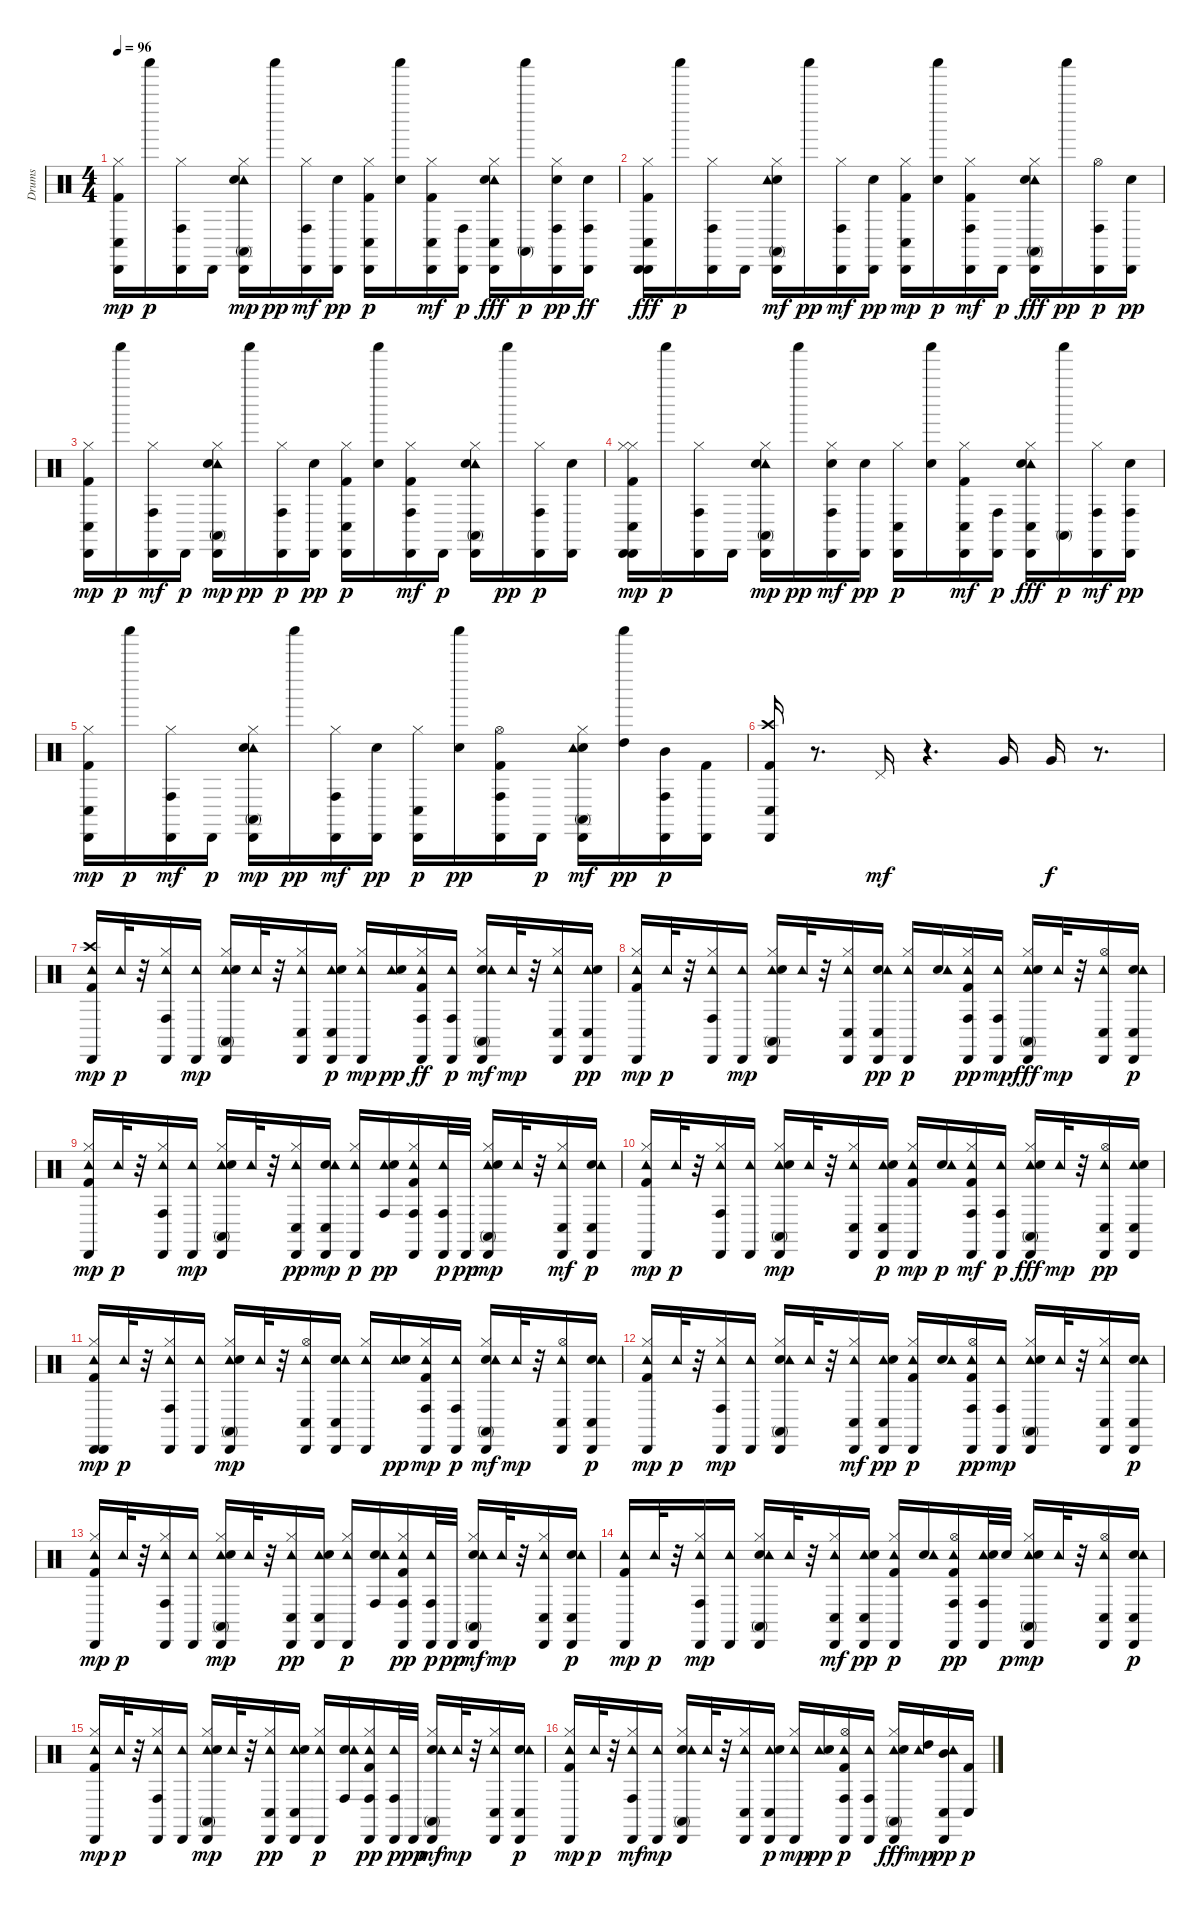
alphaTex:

\track ("Drums" "Drums") {instrument percussion}
\staff {score}
\articulation defaults
\ts (4 4)
\tempo 96
\clef neutral
\ks c
("Conga low (hit)" "Hi-Hat (closed)" "Kick (hit) 2" "Cabasa (hit)").16{dy mp} "Shaker (hit)".16{dy p} ("Cabasa (hit)" "Hi-Hat (closed)" "Conga high (hit)").16 "Cabasa (hit)".16 ("Conga high (mute)" "Tambourine (hit)" "Snare (hit) 2" "Hi-Hat (closed)" "Cabasa (hit)").16{dy mp} "Shaker (hit)".16{dy pp} ("Cabasa (hit)" "Conga high (hit)" "Hi-Hat (closed)").16{dy mf} ("Cabasa (hit)" "Electric Snare (hit)").16{dy pp} ("Cabasa (hit)" "Hi-Hat (closed)" "Kick (hit) 2" "Conga low (hit)").16{dy p} ("Electric Snare (hit)" "Shaker (hit)").16 ("Conga low (hit)" "Kick (hit) 2" "Cabasa (hit)" "Hi-Hat (closed)").16{dy mf} ("Conga high (hit)" "Cabasa (hit)").16{dy p} ("Tambourine (hit)" "Cabasa (hit)" "Conga low (hit)" "Hi-Hat (closed)" "Snare (hit) 2").16{dy fff} ("Shaker (hit)" "Conga high (mute)").16{dy p} ("Conga high (hit)" "Snare (hit) 2" "Hi-Hat (closed)" "Cabasa (hit)").16{dy pp} ("Conga high (hit)" "Cabasa (hit)" "Snare (hit) 2").16{dy ff} |
("Conga low (hit)" "Cabasa (hit)" "Hi-Hat (closed)" "Cabasa (hit)" "Kick (hit) 2").16{dy fff} "Shaker (hit)".16{dy p} ("Hi-Hat (closed)" "Conga high (hit)" "Cabasa (hit)").16 "Cabasa (hit)".16 ("Conga high (mute)" "Cabasa (hit)" "Snare (hit) 2" "Hi-Hat (closed)" "Tambourine (hit)").16{dy mf} "Shaker (hit)".16{dy pp} ("Cabasa (hit)" "Conga high (hit)" "Hi-Hat (closed)").16{dy mf} ("Cabasa (hit)" "Electric Snare (hit)").16{dy pp} ("Cabasa (hit)" "Hi-Hat (closed)" "Conga low (hit)" "Kick (hit) 2").16{dy mp} ("Electric Snare (hit)" "Shaker (hit)").16{dy p} ("Cabasa (hit)" "Conga high (hit)" "Kick (hit) 2" "Hi-Hat (closed)").16{dy mf} "Cabasa (hit)".16{dy p} ("Tambourine (hit)" "Conga high (mute)" "Cabasa (hit)" "Snare (hit) 2" "Hi-Hat (closed)").16{dy fff} "Shaker (hit)".16{dy pp} ("Cabasa (hit)" "Hi-Hat (open)" "Conga high (hit)").16{dy p} ("Cabasa (hit)" "Electric Snare (hit)").16{dy pp} |
("Hi-Hat (closed)" "Kick (hit) 2" "Conga low (hit)" "Cabasa (hit)").16{dy mp} "Shaker (hit)".16{dy p} ("Cabasa (hit)" "Conga high (hit)" "Hi-Hat (closed)").16{dy mf} "Cabasa (hit)".16{dy p} ("Tambourine (hit)" "Snare (hit) 2" "Hi-Hat (closed)" "Conga high (mute)" "Cabasa (hit)").16{dy mp} "Shaker (hit)".16{dy pp} ("Cabasa (hit)" "Hi-Hat (closed)" "Conga high (hit)").16{dy p} ("Electric Snare (hit)" "Cabasa (hit)").16{dy pp} ("Hi-Hat (closed)" "Kick (hit) 2" "Cabasa (hit)" "Conga low (hit)").16{dy p} ("Electric Snare (hit)" "Shaker (hit)").16 ("Conga high (hit)" "Kick (hit) 2" "Cabasa (hit)" "Hi-Hat (closed)").16{dy mf} "Cabasa (hit)".16{dy p} ("Cabasa (hit)" "Hi-Hat (closed)" "Tambourine (hit)" "Snare (hit) 2" "Conga high (mute)").16 "Shaker (hit)".16{dy pp} ("Cabasa (hit)" "Conga high (hit)" "Hi-Hat (closed)").16{dy p} ("Electric Snare (hit)" "Cabasa (hit)").16 |
("Cabasa (hit)" "Conga low (hit)" "Hi-Hat (closed)" "Kick (hit) 2" "Hi-Hat (closed)" "Cabasa (hit)").16{dy mp} "Shaker (hit)".16{dy p} ("Hi-Hat (closed)" "Cabasa (hit)" "Conga high (hit)").16 "Cabasa (hit)".16 ("Conga high (mute)" "Tambourine (hit)" "Hi-Hat (closed)" "Snare (hit) 2" "Cabasa (hit)").16{dy mp} "Shaker (hit)".16{dy pp} ("Cabasa (hit)" "Conga high (hit)" "Snare (hit) 2" "Hi-Hat (closed)").16{dy mf} ("Cabasa (hit)" "Electric Snare (hit)").16{dy pp} ("Cabasa (hit)" "Hi-Hat (closed)" "Conga low (hit)").16{dy p} ("Electric Snare (hit)" "Shaker (hit)").16 ("Conga low (hit)" "Cabasa (hit)" "Kick (hit) 2" "Hi-Hat (closed)").16{dy mf} ("Conga high (hit)" "Cabasa (hit)").16{dy p} ("Conga low (hit)" "Tambourine (hit)" "Cabasa (hit)" "Snare (hit) 2" "Hi-Hat (closed)").16{dy fff} ("Shaker (hit)" "Conga high (mute)").16{dy p} ("Conga high (hit)" "Cabasa (hit)" "Hi-Hat (closed)").16{dy mf} ("Cabasa (hit)" "Conga high (hit)" "Electric Snare (hit)").16{dy pp} |
("Conga low (hit)" "Kick (hit) 2" "Hi-Hat (closed)" "Cabasa (hit)").16{dy mp} "Shaker (hit)".16{dy p} ("Cabasa (hit)" "Conga high (hit)" "Hi-Hat (closed)").16{dy mf} "Cabasa (hit)".16{dy p} ("Tambourine (hit)" "Conga high (mute)" "Snare (hit) 2" "Hi-Hat (closed)" "Cabasa (hit)").16{dy mp} "Shaker (hit)".16{dy pp} ("Conga high (hit)" "Cabasa (hit)" "Hi-Hat (closed)").16{dy mf} ("Snare (hit) 2" "Cabasa (hit)").16{dy pp} ("Conga low (hit)" "Hi-Hat (closed)" "Cabasa (hit)").16{dy p} ("Shaker (hit)" "Electric Snare (hit)").16{dy pp} ("Conga high (hit)" "Kick (hit) 2" "Hi-Hat (open)" "Cabasa (hit)").16 "Cabasa (hit)".16{dy p} ("Cabasa (hit)" "Conga high (mute)" "Snare (hit) 2" "Hi-Hat (closed)" "Tambourine (hit)").16{dy mf} ("High Tom (hit)" "Shaker (hit)").16{dy pp} ("Cabasa (hit)" "Mid Tom (hit)" "Conga high (hit)").16{dy p} ("Kick (hit) 2" "Cabasa (hit)").16 |
("Cabasa (hit)" "Crash high (hit)" "Kick (hit) 2" "Conga low (hit)").16 r.8{d} "Pedal Hi-Hat (hit)".16{dy mf} r.4{d} "Very Low Tom (hit)".16 "Very Low Tom (hit)".16{dy f} r.8{d} |
("Kick (hit) 2" "Cabasa (hit)" "Tambourine (hit)" "Crash high (hit)").16{dy mp} "Tambourine (hit)".32{dy p} r.32 ("Conga high (hit)" "Tambourine (hit)" "Hi-Hat (closed)" "Cabasa (hit)").16 ("Cabasa (hit)" "Tambourine (hit)").16{dy mp} ("Hi-Hat (closed)" "Tambourine (hit)" "Snare (hit) 2" "Cabasa (hit)" "Conga high (mute)").16 "Tambourine (hit)".32 r.32 ("Cabasa (hit)" "Tambourine (hit)" "Hi-Hat (closed)" "Conga low (hit)").16 ("Cabasa (hit)" "Tambourine (hit)" "Electric Snare (hit)" "Conga low (hit)").16{dy p} ("Cabasa (hit)" "Tambourine (hit)" "Hi-Hat (closed)").16{dy mp} ("Tambourine (hit)" "Electric Snare (hit)").16{dy pp} ("Cabasa (hit)" "Tambourine (hit)" "Hi-Hat (closed)" "Conga high (hit)" "Kick (hit) 2").16{dy ff} ("Conga high (hit)" "Tambourine (hit)" "Cabasa (hit)").16{dy p} ("Hi-Hat (closed)" "Conga high (mute)" "Cabasa (hit)" "Snare (hit) 2" "Tambourine (hit)").16{dy mf} "Tambourine (hit)".32{dy mp} r.32 ("Conga low (hit)" "Cabasa (hit)" "Hi-Hat (closed)" "Tambourine (hit)").16 ("Cabasa (hit)" "Conga low (hit)" "Tambourine (hit)" "Electric Snare (hit)").16{dy pp} |
("Hi-Hat (closed)" "Kick (hit) 2" "Tambourine (hit)" "Cabasa (hit)").16{dy mp} "Tambourine (hit)".32{dy p} r.32 ("Cabasa (hit)" "Hi-Hat (closed)" "Tambourine (hit)" "Conga high (hit)").16 ("Cabasa (hit)" "Tambourine (hit)").16{dy mp} ("Tambourine (hit)" "Snare (hit) 2" "Hi-Hat (closed)" "Conga high (mute)" "Cabasa (hit)").16 "Tambourine (hit)".32 r.32 ("Cabasa (hit)" "Hi-Hat (closed)" "Tambourine (hit)" "Conga low (hit)").16 ("Electric Snare (hit)" "Tambourine (hit)" "Conga low (hit)" "Cabasa (hit)").16{dy pp} ("Hi-Hat (closed)" "Tambourine (hit)" "Cabasa (hit)").16{dy p} ("Electric Snare (hit)" "Tambourine (hit)").16 ("Tambourine (hit)" "Conga high (hit)" "Kick (hit) 2" "Hi-Hat (closed)" "Cabasa (hit)").16{dy pp} ("Cabasa (hit)" "Tambourine (hit)" "Conga high (hit)").16{dy mp} ("Cabasa (hit)" "Tambourine (hit)" "Conga high (mute)" "Snare (hit) 2" "Hi-Hat (closed)").16{dy fff} "Tambourine (hit)".32{dy mp} r.32 ("Cabasa (hit)" "Tambourine (hit)" "Hi-Hat (open)" "Conga low (hit)").16 ("Electric Snare (hit)" "Tambourine (hit)" "Conga low (hit)" "Cabasa (hit)").16{dy p} |
("Cabasa (hit)" "Kick (hit) 2" "Tambourine (hit)" "Hi-Hat (closed)").16{dy mp} "Tambourine (hit)".32{dy p} r.32 ("Tambourine (hit)" "Hi-Hat (closed)" "Conga high (hit)" "Cabasa (hit)").16 ("Cabasa (hit)" "Tambourine (hit)").16{dy mp} ("Conga high (mute)" "Hi-Hat (closed)" "Tambourine (hit)" "Snare (hit) 2" "Cabasa (hit)").16 "Tambourine (hit)".32 r.32 ("Tambourine (hit)" "Hi-Hat (closed)" "Conga low (hit)" "Cabasa (hit)").16{dy pp} ("Conga low (hit)" "Electric Snare (hit)" "Cabasa (hit)" "Tambourine (hit)").16{dy mp} ("Hi-Hat (closed)" "Tambourine (hit)" "Cabasa (hit)").16{dy p} ("Tambourine (hit)" "Conga high (hit)" "Electric Snare (hit)").16{dy pp} ("Conga high (hit)" "Hi-Hat (closed)" "Kick (hit) 2" "Tambourine (hit)" "Cabasa (hit)").16 ("Tambourine (hit)" "Conga high (hit)" "Cabasa (hit)").32{dy p} "Cabasa (hit)".32{dy pp} ("Cabasa (hit)" "Tambourine (hit)" "Snare (hit) 2" "Hi-Hat (closed)" "Conga high (mute)").16{dy mp} "Tambourine (hit)".32 r.32 ("Cabasa (hit)" "Tambourine (hit)" "Conga low (hit)" "Hi-Hat (closed)").16{dy mf} ("Electric Snare (hit)" "Tambourine (hit)" "Cabasa (hit)" "Conga low (hit)").16{dy p} |
("Hi-Hat (closed)" "Kick (hit) 2" "Tambourine (hit)" "Cabasa (hit)").16{dy mp} "Tambourine (hit)".32{dy p} r.32 ("Cabasa (hit)" "Tambourine (hit)" "Hi-Hat (closed)" "Conga high (hit)").16 ("Tambourine (hit)" "Cabasa (hit)").16 ("Tambourine (hit)" "Snare (hit) 2" "Hi-Hat (closed)" "Conga high (mute)" "Cabasa (hit)").16{dy mp} "Tambourine (hit)".32 r.32 ("Cabasa (hit)" "Hi-Hat (closed)" "Tambourine (hit)" "Conga low (hit)").16 ("Cabasa (hit)" "Tambourine (hit)" "Electric Snare (hit)" "Conga low (hit)").16{dy p} ("Cabasa (hit)" "Hi-Hat (closed)" "Kick (hit) 2" "Tambourine (hit)").16{dy mp} ("Electric Snare (hit)" "Tambourine (hit)").16{dy p} ("Conga high (hit)" "Tambourine (hit)" "Kick (hit) 2" "Cabasa (hit)" "Hi-Hat (closed)").16{dy mf} ("Tambourine (hit)" "Conga high (hit)" "Cabasa (hit)").16{dy p} ("Cabasa (hit)" "Tambourine (hit)" "Hi-Hat (closed)" "Conga high (mute)" "Snare (hit) 2").16{dy fff} "Tambourine (hit)".32{dy mp} r.32 ("Conga low (hit)" "Tambourine (hit)" "Hi-Hat (open)" "Cabasa (hit)").16{dy pp} ("Tambourine (hit)" "Cabasa (hit)" "Conga low (hit)" "Electric Snare (hit)").16 |
("Cabasa (hit)" "Hi-Hat (closed)" "Kick (hit) 2" "Cabasa (hit)" "Tambourine (hit)").16{dy mp} "Tambourine (hit)".32{dy p} r.32 ("Hi-Hat (closed)" "Conga high (hit)" "Tambourine (hit)" "Cabasa (hit)").16 ("Tambourine (hit)" "Cabasa (hit)").16 ("Tambourine (hit)" "Hi-Hat (closed)" "Snare (hit) 2" "Cabasa (hit)" "Conga high (mute)").16{dy mp} "Tambourine (hit)".32 r.32 ("Cabasa (hit)" "Tambourine (hit)" "Hi-Hat (open)" "Conga low (hit)").16 ("Cabasa (hit)" "Conga low (hit)" "Electric Snare (hit)" "Tambourine (hit)").16 ("Cabasa (hit)" "Hi-Hat (closed)" "Tambourine (hit)").16 ("Tambourine (hit)" "Electric Snare (hit)").16{dy pp} ("Cabasa (hit)" "Conga high (hit)" "Hi-Hat (closed)" "Kick (hit) 2" "Tambourine (hit)").16{dy mp} ("Tambourine (hit)" "Conga high (hit)" "Cabasa (hit)").16{dy p} ("Hi-Hat (closed)" "Cabasa (hit)" "Snare (hit) 2" "Conga high (mute)" "Tambourine (hit)").16{dy mf} "Tambourine (hit)".32{dy mp} r.32 ("Cabasa (hit)" "Hi-Hat (open)" "Tambourine (hit)" "Conga low (hit)").16 ("Cabasa (hit)" "Electric Snare (hit)" "Tambourine (hit)" "Conga low (hit)").16{dy p} |
("Hi-Hat (closed)" "Kick (hit) 2" "Tambourine (hit)" "Cabasa (hit)").16{dy mp} "Tambourine (hit)".32{dy p} r.32 ("Cabasa (hit)" "Conga high (hit)" "Hi-Hat (closed)" "Tambourine (hit)").16{dy mp} ("Cabasa (hit)" "Tambourine (hit)").16 ("Hi-Hat (closed)" "Snare (hit) 2" "Conga high (mute)" "Tambourine (hit)" "Cabasa (hit)").16 "Tambourine (hit)".32 r.32 ("Cabasa (hit)" "Tambourine (hit)" "Conga low (hit)" "Hi-Hat (closed)").16{dy mf} ("Tambourine (hit)" "Conga low (hit)" "Electric Snare (hit)" "Cabasa (hit)").16{dy pp} ("Kick (hit) 2" "Tambourine (hit)" "Hi-Hat (closed)" "Cabasa (hit)").16{dy p} ("Electric Snare (hit)" "Tambourine (hit)").16 ("Conga high (hit)" "Kick (hit) 2" "Hi-Hat (open)" "Tambourine (hit)" "Cabasa (hit)").16{dy pp} ("Cabasa (hit)" "Tambourine (hit)" "Conga high (hit)").16{dy mp} ("Cabasa (hit)" "Tambourine (hit)" "Hi-Hat (closed)" "Snare (hit) 2" "Conga high (mute)").16 "Tambourine (hit)".32 r.32 ("Cabasa (hit)" "Hi-Hat (closed)" "Tambourine (hit)" "Conga low (hit)").16 ("Electric Snare (hit)" "Tambourine (hit)" "Conga low (hit)" "Cabasa (hit)").16{dy p} |
("Cabasa (hit)" "Hi-Hat (closed)" "Kick (hit) 2" "Tambourine (hit)").16{dy mp} "Tambourine (hit)".32{dy p} r.32 ("Hi-Hat (closed)" "Conga high (hit)" "Tambourine (hit)" "Cabasa (hit)").16 ("Tambourine (hit)" "Cabasa (hit)").16 ("Tambourine (hit)" "Hi-Hat (closed)" "Snare (hit) 2" "Conga high (mute)" "Cabasa (hit)").16{dy mp} "Tambourine (hit)".32 r.32 ("Conga low (hit)" "Hi-Hat (closed)" "Tambourine (hit)" "Cabasa (hit)").16{dy pp} ("Tambourine (hit)" "Conga low (hit)" "Electric Snare (hit)" "Cabasa (hit)").16 ("Hi-Hat (closed)" "Tambourine (hit)" "Cabasa (hit)").16{dy p} ("Conga high (hit)" "Electric Snare (hit)" "Tambourine (hit)").16 ("Tambourine (hit)" "Kick (hit) 2" "Conga high (hit)" "Hi-Hat (closed)" "Cabasa (hit)").16{dy pp} ("Conga high (hit)" "Tambourine (hit)" "Cabasa (hit)").32{dy p} "Cabasa (hit)".32{dy pp} ("Cabasa (hit)" "Conga high (mute)" "Snare (hit) 2" "Hi-Hat (closed)" "Tambourine (hit)").16{dy mf} "Tambourine (hit)".32{dy mp} r.32 ("Cabasa (hit)" "Conga low (hit)" "Hi-Hat (closed)" "Tambourine (hit)").16 ("Electric Snare (hit)" "Conga low (hit)" "Tambourine (hit)" "Cabasa (hit)").16{dy p} |
("Kick (hit) 2" "Tambourine (hit)" "Cabasa (hit)").16{dy mp} "Tambourine (hit)".32{dy p} r.32 ("Cabasa (hit)" "Conga high (hit)" "Hi-Hat (closed)" "Tambourine (hit)").16{dy mp} ("Cabasa (hit)" "Tambourine (hit)").16 ("Hi-Hat (closed)" "Snare (hit) 2" "Conga high (mute)" "Tambourine (hit)" "Cabasa (hit)").16 "Tambourine (hit)".32 r.32 ("Cabasa (hit)" "Tambourine (hit)" "Conga low (hit)" "Hi-Hat (closed)").16{dy mf} ("Tambourine (hit)" "Conga low (hit)" "Snare (hit) 2" "Cabasa (hit)").16{dy pp} ("Kick (hit) 2" "Tambourine (hit)" "Hi-Hat (closed)" "Cabasa (hit)").16{dy p} ("Electric Snare (hit)" "Tambourine (hit)").16 ("Conga high (hit)" "Kick (hit) 2" "Hi-Hat (open)" "Tambourine (hit)" "Cabasa (hit)").16{dy pp} ("Cabasa (hit)" "Tambourine (hit)" "Conga high (hit)" "Electric Snare (hit)").32 "Electric Snare (hit)".32{dy p} ("Cabasa (hit)" "Tambourine (hit)" "Hi-Hat (closed)" "Snare (hit) 2" "Conga high (mute)").16{dy mp} "Tambourine (hit)".32 r.32 ("Cabasa (hit)" "Hi-Hat (open)" "Tambourine (hit)" "Conga low (hit)").16 ("Electric Snare (hit)" "Tambourine (hit)" "Conga low (hit)" "Cabasa (hit)").16{dy p} |
("Cabasa (hit)" "Hi-Hat (closed)" "Kick (hit) 2" "Tambourine (hit)").16{dy mp} "Tambourine (hit)".32{dy p} r.32 ("Hi-Hat (closed)" "Conga high (hit)" "Tambourine (hit)" "Cabasa (hit)").16 ("Tambourine (hit)" "Cabasa (hit)").16 ("Tambourine (hit)" "Hi-Hat (closed)" "Snare (hit) 2" "Conga high (mute)" "Cabasa (hit)").16{dy mp} "Tambourine (hit)".32 r.32 ("Conga low (hit)" "Hi-Hat (closed)" "Tambourine (hit)" "Cabasa (hit)").16{dy pp} ("Tambourine (hit)" "Conga low (hit)" "Electric Snare (hit)" "Cabasa (hit)").16 ("Hi-Hat (closed)" "Tambourine (hit)" "Cabasa (hit)").16{dy p} ("Conga high (hit)" "Electric Snare (hit)" "Tambourine (hit)").16 ("Tambourine (hit)" "Kick (hit) 2" "Conga high (hit)" "Hi-Hat (closed)" "Cabasa (hit)").16{dy pp} ("Conga high (hit)" "Tambourine (hit)" "Cabasa (hit)").32{dy p} "Cabasa (hit)".32{dy pp} ("Cabasa (hit)" "Conga high (mute)" "Snare (hit) 2" "Hi-Hat (closed)" "Tambourine (hit)").16{dy mf} "Tambourine (hit)".32{dy mp} r.32 ("Cabasa (hit)" "Conga low (hit)" "Hi-Hat (closed)" "Tambourine (hit)").16 ("Electric Snare (hit)" "Conga low (hit)" "Tambourine (hit)" "Cabasa (hit)").16{dy p} |
("Kick (hit) 2" "Hi-Hat (closed)" "Tambourine (hit)" "Cabasa (hit)").16{dy mp} "Tambourine (hit)".32{dy p} r.32 ("Cabasa (hit)" "Tambourine (hit)" "Conga high (hit)" "Hi-Hat (closed)").16{dy mf} ("Cabasa (hit)" "Tambourine (hit)").16{dy mp} ("Snare (hit) 2" "Conga high (mute)" "Hi-Hat (closed)" "Tambourine (hit)" "Cabasa (hit)").16 "Tambourine (hit)".32 r.32 ("Cabasa (hit)" "Hi-Hat (closed)" "Tambourine (hit)" "Conga low (hit)").16 ("Cabasa (hit)" "Tambourine (hit)" "Conga low (hit)" "Snare (hit) 2").16{dy p} ("Cabasa (hit)" "Tambourine (hit)" "Hi-Hat (closed)").16{dy mp} ("Tambourine (hit)" "Electric Snare (hit)").16{dy pp} ("Tambourine (hit)" "Kick (hit) 2" "Hi-Hat (open)" "Cabasa (hit)" "Conga high (hit)").16{dy p} ("Tambourine (hit)" "Conga high (hit)" "Cabasa (hit)").16 ("Cabasa (hit)" "Conga high (mute)" "Tambourine (hit)" "Snare (hit) 2" "Hi-Hat (closed)").16{dy fff} ("High Tom (hit)" "Tambourine (hit)").16{dy mp} ("Tambourine (hit)" "Conga low (hit)" "Mid Tom (hit)" "Cabasa (hit)").16{dy pp} ("Conga low (hit)" "Kick (hit) 2").16{dy p}
